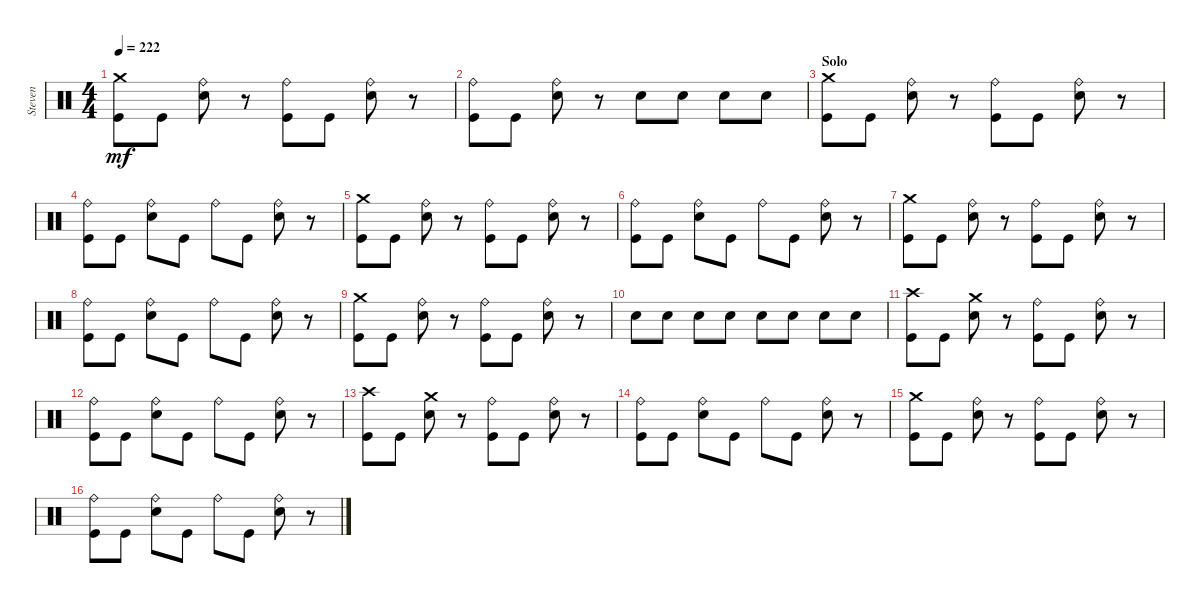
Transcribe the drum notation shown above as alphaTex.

\track ("Steven" "Steven") {instrument percussion}
\staff {score}
\articulation defaults
\ts (4 4)
\tempo 222
\clef neutral
\ks c
("Kick (hit)" "Crash medium (hit)").8{dy mf} "Kick (hit)".8 ("Snare (hit) 2" "Ride (bell)").8 r.8 ("Kick (hit)" "Ride (bell)").8 "Kick (hit)".8 ("Snare (hit) 2" "Ride (bell)").8 r.8 |
("Kick (hit)" "Ride (bell)").8 "Kick (hit)".8 ("Snare (hit) 2" "Ride (bell)").8 r.8 "Snare (hit) 2".8 "Snare (hit) 2".8 "Snare (hit) 2".8 "Snare (hit) 2".8 |
\section ("" "Solo")
("Kick (hit)" "Crash medium (hit)").8 "Kick (hit)".8 ("Snare (hit) 2" "Ride (bell)").8 r.8 ("Kick (hit)" "Ride (bell)").8 "Kick (hit)".8 ("Snare (hit) 2" "Ride (bell)").8 r.8 |
("Kick (hit)" "Ride (bell)").8 "Kick (hit)".8 ("Snare (hit) 2" "Ride (bell)").8 "Kick (hit)".8 "Ride (bell)".8 "Kick (hit)".8 ("Snare (hit) 2" "Ride (bell)").8 r.8 |
("Kick (hit)" "Crash medium (hit)").8 "Kick (hit)".8 ("Snare (hit) 2" "Ride (bell)").8 r.8 ("Kick (hit)" "Ride (bell)").8 "Kick (hit)".8 ("Snare (hit) 2" "Ride (bell)").8 r.8 |
("Kick (hit)" "Ride (bell)").8 "Kick (hit)".8 ("Snare (hit) 2" "Ride (bell)").8 "Kick (hit)".8 "Ride (bell)".8 "Kick (hit)".8 ("Snare (hit) 2" "Ride (bell)").8 r.8 |
("Kick (hit)" "Crash medium (hit)").8 "Kick (hit)".8 ("Snare (hit) 2" "Ride (bell)").8 r.8 ("Kick (hit)" "Ride (bell)").8 "Kick (hit)".8 ("Snare (hit) 2" "Ride (bell)").8 r.8 |
("Kick (hit)" "Ride (bell)").8 "Kick (hit)".8 ("Snare (hit) 2" "Ride (bell)").8 "Kick (hit)".8 "Ride (bell)".8 "Kick (hit)".8 ("Snare (hit) 2" "Ride (bell)").8 r.8 |
("Kick (hit)" "Crash medium (hit)").8 "Kick (hit)".8 ("Snare (hit) 2" "Ride (bell)").8 r.8 ("Kick (hit)" "Ride (bell)").8 "Kick (hit)".8 ("Snare (hit) 2" "Ride (bell)").8 r.8 |
"Snare (hit) 2".8 "Snare (hit) 2".8 "Snare (hit) 2".8 "Snare (hit) 2".8 "Snare (hit) 2".8 "Snare (hit) 2".8 "Snare (hit) 2".8 "Snare (hit) 2".8 |
("Kick (hit)" "Crash high (hit)").8 "Kick (hit)".8 ("Snare (hit) 2" "Crash medium (hit)").8 r.8 ("Kick (hit)" "Ride (bell)").8 "Kick (hit)".8 ("Snare (hit) 2" "Ride (bell)").8 r.8 |
("Kick (hit)" "Ride (bell)").8 "Kick (hit)".8 ("Snare (hit) 2" "Ride (bell)").8 "Kick (hit)".8 "Ride (bell)".8 "Kick (hit)".8 ("Snare (hit) 2" "Ride (bell)").8 r.8 |
("Kick (hit)" "Crash high (hit)").8 "Kick (hit)".8 ("Snare (hit) 2" "Crash medium (hit)").8 r.8 ("Kick (hit)" "Ride (bell)").8 "Kick (hit)".8 ("Snare (hit) 2" "Ride (bell)").8 r.8 |
("Kick (hit)" "Ride (bell)").8 "Kick (hit)".8 ("Snare (hit) 2" "Ride (bell)").8 "Kick (hit)".8 "Ride (bell)".8 "Kick (hit)".8 ("Snare (hit) 2" "Ride (bell)").8 r.8 |
("Kick (hit)" "Crash medium (hit)").8 "Kick (hit)".8 ("Snare (hit) 2" "Ride (bell)").8 r.8 ("Kick (hit)" "Ride (bell)").8 "Kick (hit)".8 ("Snare (hit) 2" "Ride (bell)").8 r.8 |
("Kick (hit)" "Ride (bell)").8 "Kick (hit)".8 ("Snare (hit) 2" "Ride (bell)").8 "Kick (hit)".8 "Ride (bell)".8 "Kick (hit)".8 ("Snare (hit) 2" "Ride (bell)").8 r.8
